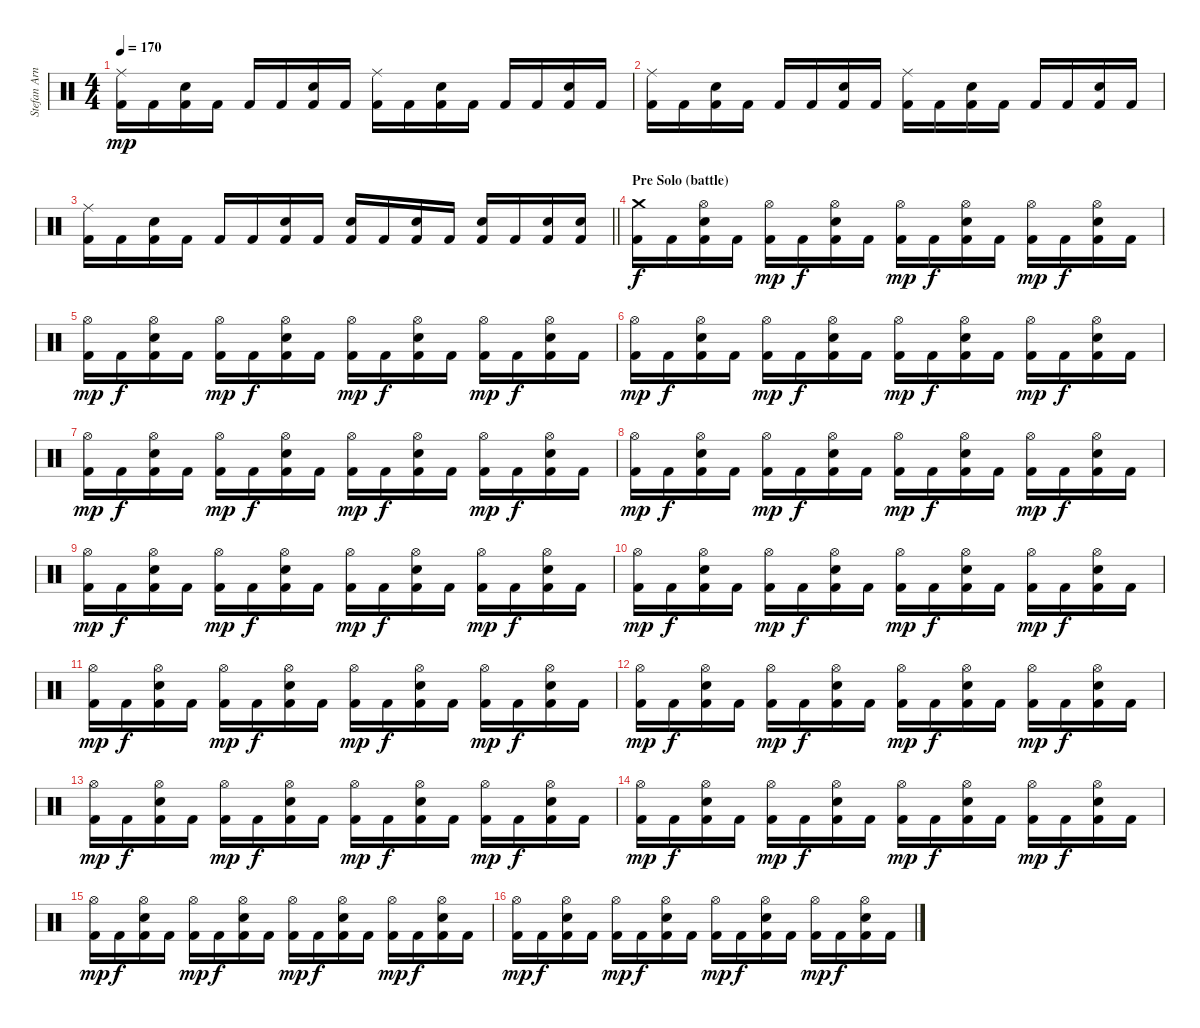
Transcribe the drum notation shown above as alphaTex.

\track ("Stefan Arnold" "Stefan Arn") {instrument percussion}
\staff {score}
\articulation defaults
\ts (4 4)
\tempo 170
\clef neutral
\ks c
("Ride (middle)" "Kick (hit) 2").16{dy mp} "Kick (hit) 2".16 ("Electric Snare (hit)" "Kick (hit) 2").16 "Kick (hit) 2".16 "Kick (hit) 2".16 "Kick (hit) 2".16 ("Electric Snare (hit)" "Kick (hit) 2").16 "Kick (hit) 2".16 ("Ride (middle)" "Kick (hit) 2").16 "Kick (hit) 2".16 ("Electric Snare (hit)" "Kick (hit) 2").16 "Kick (hit) 2".16 "Kick (hit) 2".16 "Kick (hit) 2".16 ("Electric Snare (hit)" "Kick (hit) 2").16 "Kick (hit) 2".16 |
("Ride (middle)" "Kick (hit) 2").16 "Kick (hit) 2".16 ("Electric Snare (hit)" "Kick (hit) 2").16 "Kick (hit) 2".16 "Kick (hit) 2".16 "Kick (hit) 2".16 ("Electric Snare (hit)" "Kick (hit) 2").16 "Kick (hit) 2".16 ("Ride (middle)" "Kick (hit) 2").16 "Kick (hit) 2".16 ("Electric Snare (hit)" "Kick (hit) 2").16 "Kick (hit) 2".16 "Kick (hit) 2".16 "Kick (hit) 2".16 ("Electric Snare (hit)" "Kick (hit) 2").16 "Kick (hit) 2".16 |
\barLineRight lightlight
("Ride (middle)" "Kick (hit) 2").16 "Kick (hit) 2".16 ("Electric Snare (hit)" "Kick (hit) 2").16 "Kick (hit) 2".16 "Kick (hit) 2".16 "Kick (hit) 2".16 ("Electric Snare (hit)" "Kick (hit) 2").16 "Kick (hit) 2".16 ("Electric Snare (hit)" "Kick (hit) 2").16 "Kick (hit) 2".16 ("Electric Snare (hit)" "Kick (hit) 2").16 "Kick (hit) 2".16 ("Electric Snare (hit)" "Kick (hit) 2").16 "Kick (hit) 2".16 ("Electric Snare (hit)" "Kick (hit) 2").16 ("Electric Snare (hit)" "Kick (hit) 2").16 |
\section ("" "Pre Solo (battle)")
("Crash medium (hit)" "Kick (hit) 2").16{dy f} "Kick (hit) 2".16 ("Hi-Hat (open)" "Electric Snare (hit)" "Kick (hit) 2").16 "Kick (hit) 2".16 ("Hi-Hat (open)" "Kick (hit) 2").16{dy mp} "Kick (hit) 2".16{dy f} ("Hi-Hat (open)" "Electric Snare (hit)" "Kick (hit) 2").16 "Kick (hit) 2".16 ("Hi-Hat (open)" "Kick (hit) 2").16{dy mp} "Kick (hit) 2".16{dy f} ("Hi-Hat (open)" "Electric Snare (hit)" "Kick (hit) 2").16 "Kick (hit) 2".16 ("Hi-Hat (open)" "Kick (hit) 2").16{dy mp} "Kick (hit) 2".16{dy f} ("Hi-Hat (open)" "Electric Snare (hit)" "Kick (hit) 2").16 "Kick (hit) 2".16 |
("Hi-Hat (open)" "Kick (hit) 2").16{dy mp} "Kick (hit) 2".16{dy f} ("Hi-Hat (open)" "Electric Snare (hit)" "Kick (hit) 2").16 "Kick (hit) 2".16 ("Hi-Hat (open)" "Kick (hit) 2").16{dy mp} "Kick (hit) 2".16{dy f} ("Hi-Hat (open)" "Electric Snare (hit)" "Kick (hit) 2").16 "Kick (hit) 2".16 ("Hi-Hat (open)" "Kick (hit) 2").16{dy mp} "Kick (hit) 2".16{dy f} ("Hi-Hat (open)" "Electric Snare (hit)" "Kick (hit) 2").16 "Kick (hit) 2".16 ("Hi-Hat (open)" "Kick (hit) 2").16{dy mp} "Kick (hit) 2".16{dy f} ("Hi-Hat (open)" "Electric Snare (hit)" "Kick (hit) 2").16 "Kick (hit) 2".16 |
("Hi-Hat (open)" "Kick (hit) 2").16{dy mp} "Kick (hit) 2".16{dy f} ("Hi-Hat (open)" "Electric Snare (hit)" "Kick (hit) 2").16 "Kick (hit) 2".16 ("Hi-Hat (open)" "Kick (hit) 2").16{dy mp} "Kick (hit) 2".16{dy f} ("Hi-Hat (open)" "Electric Snare (hit)" "Kick (hit) 2").16 "Kick (hit) 2".16 ("Hi-Hat (open)" "Kick (hit) 2").16{dy mp} "Kick (hit) 2".16{dy f} ("Hi-Hat (open)" "Electric Snare (hit)" "Kick (hit) 2").16 "Kick (hit) 2".16 ("Hi-Hat (open)" "Kick (hit) 2").16{dy mp} "Kick (hit) 2".16{dy f} ("Hi-Hat (open)" "Electric Snare (hit)" "Kick (hit) 2").16 "Kick (hit) 2".16 |
("Hi-Hat (open)" "Kick (hit) 2").16{dy mp} "Kick (hit) 2".16{dy f} ("Hi-Hat (open)" "Electric Snare (hit)" "Kick (hit) 2").16 "Kick (hit) 2".16 ("Hi-Hat (open)" "Kick (hit) 2").16{dy mp} "Kick (hit) 2".16{dy f} ("Hi-Hat (open)" "Electric Snare (hit)" "Kick (hit) 2").16 "Kick (hit) 2".16 ("Hi-Hat (open)" "Kick (hit) 2").16{dy mp} "Kick (hit) 2".16{dy f} ("Hi-Hat (open)" "Electric Snare (hit)" "Kick (hit) 2").16 "Kick (hit) 2".16 ("Hi-Hat (open)" "Kick (hit) 2").16{dy mp} "Kick (hit) 2".16{dy f} ("Hi-Hat (open)" "Electric Snare (hit)" "Kick (hit) 2").16 "Kick (hit) 2".16 |
("Hi-Hat (open)" "Kick (hit) 2").16{dy mp} "Kick (hit) 2".16{dy f} ("Hi-Hat (open)" "Electric Snare (hit)" "Kick (hit) 2").16 "Kick (hit) 2".16 ("Hi-Hat (open)" "Kick (hit) 2").16{dy mp} "Kick (hit) 2".16{dy f} ("Hi-Hat (open)" "Electric Snare (hit)" "Kick (hit) 2").16 "Kick (hit) 2".16 ("Hi-Hat (open)" "Kick (hit) 2").16{dy mp} "Kick (hit) 2".16{dy f} ("Hi-Hat (open)" "Electric Snare (hit)" "Kick (hit) 2").16 "Kick (hit) 2".16 ("Hi-Hat (open)" "Kick (hit) 2").16{dy mp} "Kick (hit) 2".16{dy f} ("Hi-Hat (open)" "Electric Snare (hit)" "Kick (hit) 2").16 "Kick (hit) 2".16 |
("Hi-Hat (open)" "Kick (hit) 2").16{dy mp} "Kick (hit) 2".16{dy f} ("Hi-Hat (open)" "Electric Snare (hit)" "Kick (hit) 2").16 "Kick (hit) 2".16 ("Hi-Hat (open)" "Kick (hit) 2").16{dy mp} "Kick (hit) 2".16{dy f} ("Hi-Hat (open)" "Electric Snare (hit)" "Kick (hit) 2").16 "Kick (hit) 2".16 ("Hi-Hat (open)" "Kick (hit) 2").16{dy mp} "Kick (hit) 2".16{dy f} ("Hi-Hat (open)" "Electric Snare (hit)" "Kick (hit) 2").16 "Kick (hit) 2".16 ("Hi-Hat (open)" "Kick (hit) 2").16{dy mp} "Kick (hit) 2".16{dy f} ("Hi-Hat (open)" "Electric Snare (hit)" "Kick (hit) 2").16 "Kick (hit) 2".16 |
("Hi-Hat (open)" "Kick (hit) 2").16{dy mp} "Kick (hit) 2".16{dy f} ("Hi-Hat (open)" "Electric Snare (hit)" "Kick (hit) 2").16 "Kick (hit) 2".16 ("Hi-Hat (open)" "Kick (hit) 2").16{dy mp} "Kick (hit) 2".16{dy f} ("Hi-Hat (open)" "Electric Snare (hit)" "Kick (hit) 2").16 "Kick (hit) 2".16 ("Hi-Hat (open)" "Kick (hit) 2").16{dy mp} "Kick (hit) 2".16{dy f} ("Hi-Hat (open)" "Electric Snare (hit)" "Kick (hit) 2").16 "Kick (hit) 2".16 ("Hi-Hat (open)" "Kick (hit) 2").16{dy mp} "Kick (hit) 2".16{dy f} ("Hi-Hat (open)" "Electric Snare (hit)" "Kick (hit) 2").16 "Kick (hit) 2".16 |
("Hi-Hat (open)" "Kick (hit) 2").16{dy mp} "Kick (hit) 2".16{dy f} ("Hi-Hat (open)" "Electric Snare (hit)" "Kick (hit) 2").16 "Kick (hit) 2".16 ("Hi-Hat (open)" "Kick (hit) 2").16{dy mp} "Kick (hit) 2".16{dy f} ("Hi-Hat (open)" "Electric Snare (hit)" "Kick (hit) 2").16 "Kick (hit) 2".16 ("Hi-Hat (open)" "Kick (hit) 2").16{dy mp} "Kick (hit) 2".16{dy f} ("Hi-Hat (open)" "Electric Snare (hit)" "Kick (hit) 2").16 "Kick (hit) 2".16 ("Hi-Hat (open)" "Kick (hit) 2").16{dy mp} "Kick (hit) 2".16{dy f} ("Hi-Hat (open)" "Electric Snare (hit)" "Kick (hit) 2").16 "Kick (hit) 2".16 |
("Hi-Hat (open)" "Kick (hit) 2").16{dy mp} "Kick (hit) 2".16{dy f} ("Hi-Hat (open)" "Electric Snare (hit)" "Kick (hit) 2").16 "Kick (hit) 2".16 ("Hi-Hat (open)" "Kick (hit) 2").16{dy mp} "Kick (hit) 2".16{dy f} ("Hi-Hat (open)" "Electric Snare (hit)" "Kick (hit) 2").16 "Kick (hit) 2".16 ("Hi-Hat (open)" "Kick (hit) 2").16{dy mp} "Kick (hit) 2".16{dy f} ("Hi-Hat (open)" "Electric Snare (hit)" "Kick (hit) 2").16 "Kick (hit) 2".16 ("Hi-Hat (open)" "Kick (hit) 2").16{dy mp} "Kick (hit) 2".16{dy f} ("Hi-Hat (open)" "Electric Snare (hit)" "Kick (hit) 2").16 "Kick (hit) 2".16 |
("Hi-Hat (open)" "Kick (hit) 2").16{dy mp} "Kick (hit) 2".16{dy f} ("Hi-Hat (open)" "Electric Snare (hit)" "Kick (hit) 2").16 "Kick (hit) 2".16 ("Hi-Hat (open)" "Kick (hit) 2").16{dy mp} "Kick (hit) 2".16{dy f} ("Hi-Hat (open)" "Electric Snare (hit)" "Kick (hit) 2").16 "Kick (hit) 2".16 ("Hi-Hat (open)" "Kick (hit) 2").16{dy mp} "Kick (hit) 2".16{dy f} ("Hi-Hat (open)" "Electric Snare (hit)" "Kick (hit) 2").16 "Kick (hit) 2".16 ("Hi-Hat (open)" "Kick (hit) 2").16{dy mp} "Kick (hit) 2".16{dy f} ("Hi-Hat (open)" "Electric Snare (hit)" "Kick (hit) 2").16 "Kick (hit) 2".16 |
("Hi-Hat (open)" "Kick (hit) 2").16{dy mp} "Kick (hit) 2".16{dy f} ("Hi-Hat (open)" "Electric Snare (hit)" "Kick (hit) 2").16 "Kick (hit) 2".16 ("Hi-Hat (open)" "Kick (hit) 2").16{dy mp} "Kick (hit) 2".16{dy f} ("Hi-Hat (open)" "Electric Snare (hit)" "Kick (hit) 2").16 "Kick (hit) 2".16 ("Hi-Hat (open)" "Kick (hit) 2").16{dy mp} "Kick (hit) 2".16{dy f} ("Hi-Hat (open)" "Electric Snare (hit)" "Kick (hit) 2").16 "Kick (hit) 2".16 ("Hi-Hat (open)" "Kick (hit) 2").16{dy mp} "Kick (hit) 2".16{dy f} ("Hi-Hat (open)" "Electric Snare (hit)" "Kick (hit) 2").16 "Kick (hit) 2".16 |
("Hi-Hat (open)" "Kick (hit) 2").16{dy mp} "Kick (hit) 2".16{dy f} ("Hi-Hat (open)" "Electric Snare (hit)" "Kick (hit) 2").16 "Kick (hit) 2".16 ("Hi-Hat (open)" "Kick (hit) 2").16{dy mp} "Kick (hit) 2".16{dy f} ("Hi-Hat (open)" "Electric Snare (hit)" "Kick (hit) 2").16 "Kick (hit) 2".16 ("Hi-Hat (open)" "Kick (hit) 2").16{dy mp} "Kick (hit) 2".16{dy f} ("Hi-Hat (open)" "Electric Snare (hit)" "Kick (hit) 2").16 "Kick (hit) 2".16 ("Hi-Hat (open)" "Kick (hit) 2").16{dy mp} "Kick (hit) 2".16{dy f} ("Hi-Hat (open)" "Electric Snare (hit)" "Kick (hit) 2").16 "Kick (hit) 2".16 |
("Hi-Hat (open)" "Kick (hit) 2").16{dy mp} "Kick (hit) 2".16{dy f} ("Hi-Hat (open)" "Electric Snare (hit)" "Kick (hit) 2").16 "Kick (hit) 2".16 ("Hi-Hat (open)" "Kick (hit) 2").16{dy mp} "Kick (hit) 2".16{dy f} ("Hi-Hat (open)" "Electric Snare (hit)" "Kick (hit) 2").16 "Kick (hit) 2".16 ("Hi-Hat (open)" "Kick (hit) 2").16{dy mp} "Kick (hit) 2".16{dy f} ("Hi-Hat (open)" "Electric Snare (hit)" "Kick (hit) 2").16 "Kick (hit) 2".16 ("Hi-Hat (open)" "Kick (hit) 2").16{dy mp} "Kick (hit) 2".16{dy f} ("Hi-Hat (open)" "Electric Snare (hit)" "Kick (hit) 2").16 "Kick (hit) 2".16
